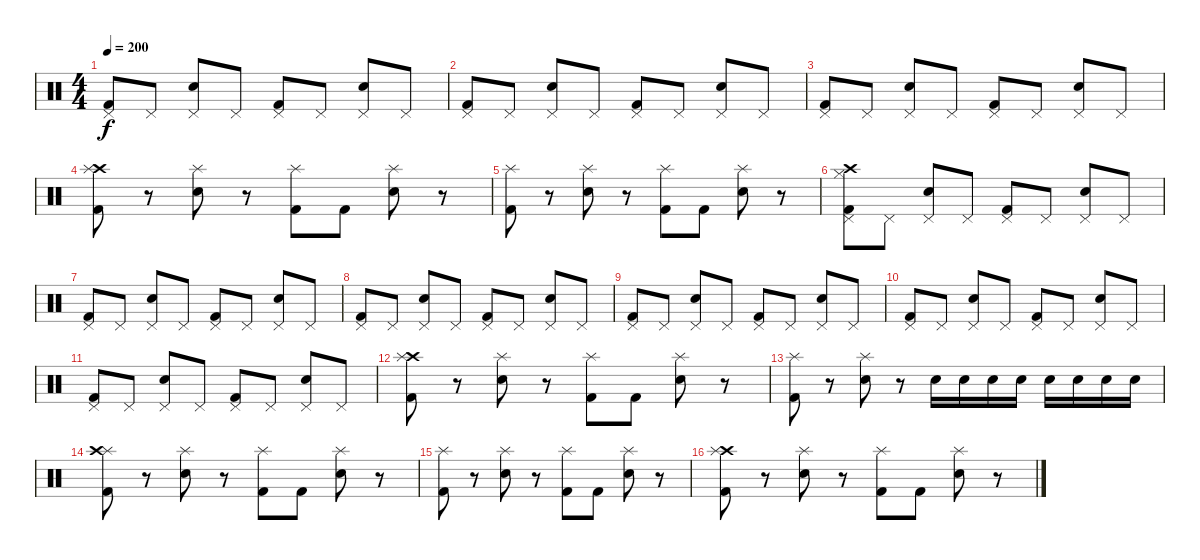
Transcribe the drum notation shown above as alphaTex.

\track "" {instrument percussion}
\staff {score}
\articulation defaults
\ts (4 4)
\tempo 200
\clef neutral
\ks c
("Pedal Hi-Hat (hit)" "Kick (hit) 2").8{dy f} "Pedal Hi-Hat (hit)".8 ("Pedal Hi-Hat (hit)" "Electric Snare (hit)").8 "Pedal Hi-Hat (hit)".8 ("Pedal Hi-Hat (hit)" "Kick (hit) 2").8 "Pedal Hi-Hat (hit)".8 ("Pedal Hi-Hat (hit)" "Electric Snare (hit)").8 "Pedal Hi-Hat (hit)".8 |
("Pedal Hi-Hat (hit)" "Kick (hit) 2").8 "Pedal Hi-Hat (hit)".8 ("Pedal Hi-Hat (hit)" "Electric Snare (hit)").8 "Pedal Hi-Hat (hit)".8 ("Pedal Hi-Hat (hit)" "Kick (hit) 2").8 "Pedal Hi-Hat (hit)".8 ("Pedal Hi-Hat (hit)" "Electric Snare (hit)").8 "Pedal Hi-Hat (hit)".8 |
("Pedal Hi-Hat (hit)" "Kick (hit) 2").8 "Pedal Hi-Hat (hit)".8 ("Pedal Hi-Hat (hit)" "Electric Snare (hit)").8 "Pedal Hi-Hat (hit)".8 ("Pedal Hi-Hat (hit)" "Kick (hit) 2").8 "Pedal Hi-Hat (hit)".8 ("Pedal Hi-Hat (hit)" "Electric Snare (hit)").8 "Pedal Hi-Hat (hit)".8 |
("Crash high (hit)" "Splash (hit)" "Kick (hit) 2").8 r.8 ("Splash (hit)" "Electric Snare (hit)").8 r.8 ("Splash (hit)" "Kick (hit) 2").8 "Kick (hit) 2".8 ("Splash (hit)" "Electric Snare (hit)").8 r.8 |
("Splash (hit)" "Kick (hit) 2").8 r.8 ("Splash (hit)" "Electric Snare (hit)").8 r.8 ("Splash (hit)" "Kick (hit) 2").8 "Kick (hit) 2".8 ("Splash (hit)" "Electric Snare (hit)").8 r.8 |
("Pedal Hi-Hat (hit)" "Crash high (hit)" "Hi-Hat (closed)" "Kick (hit) 2").8 "Pedal Hi-Hat (hit)".8 ("Pedal Hi-Hat (hit)" "Electric Snare (hit)").8 "Pedal Hi-Hat (hit)".8 ("Pedal Hi-Hat (hit)" "Kick (hit) 2").8 "Pedal Hi-Hat (hit)".8 ("Pedal Hi-Hat (hit)" "Electric Snare (hit)").8 "Pedal Hi-Hat (hit)".8 |
("Pedal Hi-Hat (hit)" "Kick (hit) 2").8 "Pedal Hi-Hat (hit)".8 ("Pedal Hi-Hat (hit)" "Electric Snare (hit)").8 "Pedal Hi-Hat (hit)".8 ("Pedal Hi-Hat (hit)" "Kick (hit) 2").8 "Pedal Hi-Hat (hit)".8 ("Pedal Hi-Hat (hit)" "Electric Snare (hit)").8 "Pedal Hi-Hat (hit)".8 |
("Pedal Hi-Hat (hit)" "Kick (hit) 2").8 "Pedal Hi-Hat (hit)".8 ("Pedal Hi-Hat (hit)" "Electric Snare (hit)").8 "Pedal Hi-Hat (hit)".8 ("Pedal Hi-Hat (hit)" "Kick (hit) 2").8 "Pedal Hi-Hat (hit)".8 ("Pedal Hi-Hat (hit)" "Electric Snare (hit)").8 "Pedal Hi-Hat (hit)".8 |
("Pedal Hi-Hat (hit)" "Kick (hit) 2").8 "Pedal Hi-Hat (hit)".8 ("Pedal Hi-Hat (hit)" "Electric Snare (hit)").8 "Pedal Hi-Hat (hit)".8 ("Pedal Hi-Hat (hit)" "Kick (hit) 2").8 "Pedal Hi-Hat (hit)".8 ("Pedal Hi-Hat (hit)" "Electric Snare (hit)").8 "Pedal Hi-Hat (hit)".8 |
("Pedal Hi-Hat (hit)" "Kick (hit) 2").8 "Pedal Hi-Hat (hit)".8 ("Pedal Hi-Hat (hit)" "Electric Snare (hit)").8 "Pedal Hi-Hat (hit)".8 ("Pedal Hi-Hat (hit)" "Kick (hit) 2").8 "Pedal Hi-Hat (hit)".8 ("Pedal Hi-Hat (hit)" "Electric Snare (hit)").8 "Pedal Hi-Hat (hit)".8 |
("Pedal Hi-Hat (hit)" "Kick (hit) 2").8 "Pedal Hi-Hat (hit)".8 ("Pedal Hi-Hat (hit)" "Electric Snare (hit)").8 "Pedal Hi-Hat (hit)".8 ("Pedal Hi-Hat (hit)" "Kick (hit) 2").8 "Pedal Hi-Hat (hit)".8 ("Pedal Hi-Hat (hit)" "Electric Snare (hit)").8 "Pedal Hi-Hat (hit)".8 |
("Crash high (hit)" "Splash (hit)" "Kick (hit) 2").8 r.8 ("Splash (hit)" "Electric Snare (hit)").8 r.8 ("Splash (hit)" "Kick (hit) 2").8 "Kick (hit) 2".8 ("Splash (hit)" "Electric Snare (hit)").8 r.8 |
("Splash (hit)" "Kick (hit) 2").8 r.8 ("Splash (hit)" "Electric Snare (hit)").8 r.8 "Electric Snare (hit)".16 "Electric Snare (hit)".16 "Electric Snare (hit)".16 "Electric Snare (hit)".16 "Electric Snare (hit)".16 "Electric Snare (hit)".16 "Electric Snare (hit)".16 "Electric Snare (hit)".16 |
("Splash (hit)" "Crash high (hit)" "Kick (hit) 2").8 r.8 ("Splash (hit)" "Electric Snare (hit)").8 r.8 ("Splash (hit)" "Kick (hit) 2").8 "Kick (hit) 2".8 ("Splash (hit)" "Electric Snare (hit)").8 r.8 |
("Splash (hit)" "Kick (hit) 2").8 r.8 ("Splash (hit)" "Electric Snare (hit)").8 r.8 ("Splash (hit)" "Kick (hit) 2").8 "Kick (hit) 2".8 ("Splash (hit)" "Electric Snare (hit)").8 r.8 |
("Crash high (hit)" "Splash (hit)" "Kick (hit) 2").8 r.8 ("Splash (hit)" "Electric Snare (hit)").8 r.8 ("Splash (hit)" "Kick (hit) 2").8 "Kick (hit) 2".8 ("Splash (hit)" "Electric Snare (hit)").8 r.8
